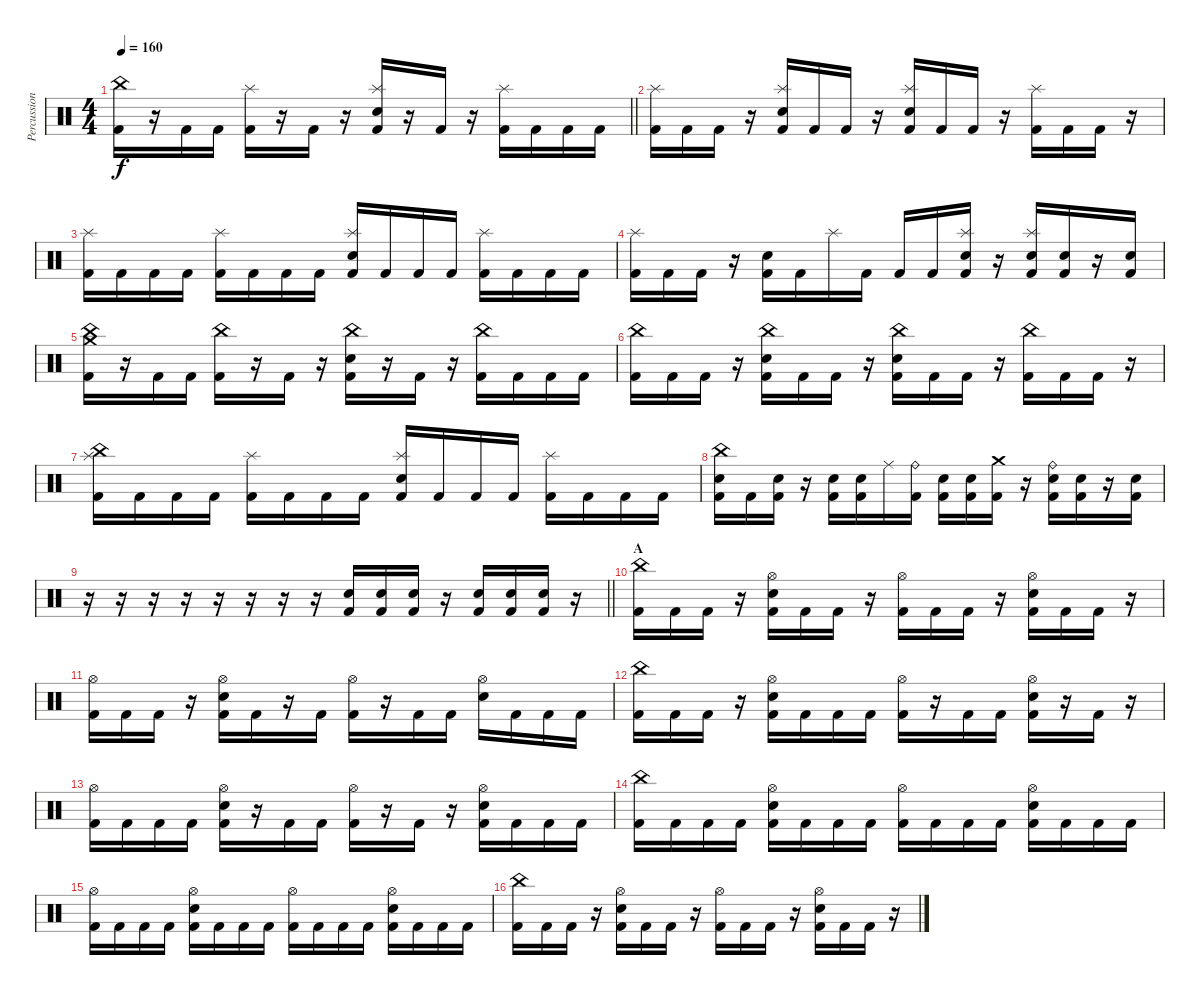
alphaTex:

\track ("Percussion" "Percussion") {instrument percussion}
\staff {score}
\articulation defaults
\ts (4 4)
\tempo 160
\clef neutral
\barLineRight lightlight
\ks c
("China (hit)" "Kick (hit) 2").16{dy f} r.16 "Kick (hit) 2".16 "Kick (hit) 2".16 ("Splash (hit)" "Kick (hit) 2").16 r.16 "Kick (hit) 2".16 r.16 ("Splash (hit)" "Electric Snare (hit)" "Kick (hit) 2").16 r.16 "Kick (hit) 2".16 r.16 ("Splash (hit)" "Kick (hit) 2").16 "Kick (hit) 2".16 "Kick (hit) 2".16 "Kick (hit) 2".16 |
("Splash (hit)" "Kick (hit) 2").16 "Kick (hit) 2".16 "Kick (hit) 2".16 r.16 ("Splash (hit)" "Electric Snare (hit)" "Kick (hit) 2").16 "Kick (hit) 2".16 "Kick (hit) 2".16 r.16 ("Splash (hit)" "Electric Snare (hit)" "Kick (hit) 2").16 "Kick (hit) 2".16 "Kick (hit) 2".16 r.16 ("Splash (hit)" "Kick (hit) 2").16 "Kick (hit) 2".16 "Kick (hit) 2".16 r.16 |
("Splash (hit)" "Kick (hit) 2").16 "Kick (hit) 2".16 "Kick (hit) 2".16 "Kick (hit) 2".16 ("Splash (hit)" "Kick (hit) 2").16 "Kick (hit) 2".16 "Kick (hit) 2".16 "Kick (hit) 2".16 ("Splash (hit)" "Electric Snare (hit)" "Kick (hit) 2").16 "Kick (hit) 2".16 "Kick (hit) 2".16 "Kick (hit) 2".16 ("Splash (hit)" "Kick (hit) 2").16 "Kick (hit) 2".16 "Kick (hit) 2".16 "Kick (hit) 2".16 |
("Splash (hit)" "Kick (hit) 2").16 "Kick (hit) 2".16 "Kick (hit) 2".16 r.16 ("Electric Snare (hit)" "Kick (hit) 2").16 "Kick (hit) 2".16 "Splash (hit)".16 "Kick (hit) 2".16 "Kick (hit) 2".16 "Kick (hit) 2".16 ("Splash (hit)" "Electric Snare (hit)" "Kick (hit) 2").16 r.16 ("Splash (hit)" "Electric Snare (hit)" "Kick (hit) 2").16 ("Electric Snare (hit)" "Kick (hit) 2").16 r.16 ("Electric Snare (hit)" "Kick (hit) 2").16 |
("China (hit)" "Crash medium (hit)" "Kick (hit) 2").16 r.16 "Kick (hit) 2".16 "Kick (hit) 2".16 ("China (hit)" "Kick (hit) 2").16 r.16 "Kick (hit) 2".16 r.16 ("China (hit)" "Electric Snare (hit)" "Kick (hit) 2").16 r.16 "Kick (hit) 2".16 r.16 ("China (hit)" "Kick (hit) 2").16 "Kick (hit) 2".16 "Kick (hit) 2".16 "Kick (hit) 2".16 |
("China (hit)" "Kick (hit) 2").16 "Kick (hit) 2".16 "Kick (hit) 2".16 r.16 ("China (hit)" "Electric Snare (hit)" "Kick (hit) 2").16 "Kick (hit) 2".16 "Kick (hit) 2".16 r.16 ("China (hit)" "Electric Snare (hit)" "Kick (hit) 2").16 "Kick (hit) 2".16 "Kick (hit) 2".16 r.16 ("China (hit)" "Kick (hit) 2").16 "Kick (hit) 2".16 "Kick (hit) 2".16 r.16 |
("China (hit)" "Splash (hit)" "Kick (hit) 2").16 "Kick (hit) 2".16 "Kick (hit) 2".16 "Kick (hit) 2".16 ("Splash (hit)" "Kick (hit) 2").16 "Kick (hit) 2".16 "Kick (hit) 2".16 "Kick (hit) 2".16 ("Splash (hit)" "Electric Snare (hit)" "Kick (hit) 2").16 "Kick (hit) 2".16 "Kick (hit) 2".16 "Kick (hit) 2".16 ("Splash (hit)" "Kick (hit) 2").16 "Kick (hit) 2".16 "Kick (hit) 2".16 "Kick (hit) 2".16 |
("China (hit)" "Electric Snare (hit)" "Kick (hit) 2").16 "Kick (hit) 2".16 ("Electric Snare (hit)" "Kick (hit) 2").16 r.16 ("Electric Snare (hit)" "Kick (hit) 2").16 ("Electric Snare (hit)" "Kick (hit) 2").16 "Ride (middle)".16 ("Ride (bell)" "Kick (hit) 2").16 ("Electric Snare (hit)" "Kick (hit) 2").16 ("Electric Snare (hit)" "Kick (hit) 2").16 ("Crash medium (hit)" "Kick (hit) 2").16 r.16 ("Ride (bell)" "Electric Snare (hit)" "Kick (hit) 2").16 ("Electric Snare (hit)" "Kick (hit) 2").16 r.16 ("Electric Snare (hit)" "Kick (hit) 2").16 |
\barLineRight lightlight
r.16 r.16 r.16 r.16 r.16 r.16 r.16 r.16 ("Electric Snare (hit)" "Kick (hit) 2").16 ("Electric Snare (hit)" "Kick (hit) 2").16 ("Electric Snare (hit)" "Kick (hit) 2").16 r.16 ("Electric Snare (hit)" "Kick (hit) 2").16 ("Electric Snare (hit)" "Kick (hit) 2").16 ("Electric Snare (hit)" "Kick (hit) 2").16 r.16 |
\section ("" "A")
("China (hit)" "Kick (hit) 2").16 "Kick (hit) 2".16 "Kick (hit) 2".16 r.16 ("Hi-Hat (open)" "Electric Snare (hit)" "Kick (hit) 2").16 "Kick (hit) 2".16 "Kick (hit) 2".16 r.16 ("Hi-Hat (open)" "Kick (hit) 2").16 "Kick (hit) 2".16 "Kick (hit) 2".16 r.16 ("Hi-Hat (open)" "Electric Snare (hit)" "Kick (hit) 2").16 "Kick (hit) 2".16 "Kick (hit) 2".16 r.16 |
("Hi-Hat (open)" "Kick (hit) 2").16 "Kick (hit) 2".16 "Kick (hit) 2".16 r.16 ("Hi-Hat (open)" "Electric Snare (hit)" "Kick (hit) 2").16 "Kick (hit) 2".16 r.16 "Kick (hit) 2".16 ("Hi-Hat (open)" "Kick (hit) 2").16 r.16 "Kick (hit) 2".16 "Kick (hit) 2".16 ("Hi-Hat (open)" "Electric Snare (hit)").16 "Kick (hit) 2".16 "Kick (hit) 2".16 "Kick (hit) 2".16 |
("China (hit)" "Kick (hit) 2").16 "Kick (hit) 2".16 "Kick (hit) 2".16 r.16 ("Hi-Hat (open)" "Electric Snare (hit)" "Kick (hit) 2").16 "Kick (hit) 2".16 "Kick (hit) 2".16 "Kick (hit) 2".16 ("Hi-Hat (open)" "Kick (hit) 2").16 r.16 "Kick (hit) 2".16 "Kick (hit) 2".16 ("Hi-Hat (open)" "Electric Snare (hit)" "Kick (hit) 2").16 r.16 "Kick (hit) 2".16 r.16 |
("Hi-Hat (open)" "Kick (hit) 2").16 "Kick (hit) 2".16 "Kick (hit) 2".16 "Kick (hit) 2".16 ("Hi-Hat (open)" "Electric Snare (hit)" "Kick (hit) 2").16 r.16 "Kick (hit) 2".16 "Kick (hit) 2".16 ("Hi-Hat (open)" "Kick (hit) 2").16 r.16 "Kick (hit) 2".16 r.16 ("Hi-Hat (open)" "Electric Snare (hit)" "Kick (hit) 2").16 "Kick (hit) 2".16 "Kick (hit) 2".16 "Kick (hit) 2".16 |
("China (hit)" "Kick (hit) 2").16 "Kick (hit) 2".16 "Kick (hit) 2".16 "Kick (hit) 2".16 ("Hi-Hat (open)" "Electric Snare (hit)" "Kick (hit) 2").16 "Kick (hit) 2".16 "Kick (hit) 2".16 "Kick (hit) 2".16 ("Hi-Hat (open)" "Kick (hit) 2").16 "Kick (hit) 2".16 "Kick (hit) 2".16 "Kick (hit) 2".16 ("Hi-Hat (open)" "Electric Snare (hit)" "Kick (hit) 2").16 "Kick (hit) 2".16 "Kick (hit) 2".16 "Kick (hit) 2".16 |
("Hi-Hat (open)" "Kick (hit) 2").16 "Kick (hit) 2".16 "Kick (hit) 2".16 "Kick (hit) 2".16 ("Hi-Hat (open)" "Electric Snare (hit)" "Kick (hit) 2").16 "Kick (hit) 2".16 "Kick (hit) 2".16 "Kick (hit) 2".16 ("Hi-Hat (open)" "Kick (hit) 2").16 "Kick (hit) 2".16 "Kick (hit) 2".16 "Kick (hit) 2".16 ("Hi-Hat (open)" "Electric Snare (hit)" "Kick (hit) 2").16 "Kick (hit) 2".16 "Kick (hit) 2".16 "Kick (hit) 2".16 |
("China (hit)" "Kick (hit) 2").16 "Kick (hit) 2".16 "Kick (hit) 2".16 r.16 ("Hi-Hat (open)" "Electric Snare (hit)" "Kick (hit) 2").16 "Kick (hit) 2".16 "Kick (hit) 2".16 r.16 ("Hi-Hat (open)" "Kick (hit) 2").16 "Kick (hit) 2".16 "Kick (hit) 2".16 r.16 ("Hi-Hat (open)" "Electric Snare (hit)" "Kick (hit) 2").16 "Kick (hit) 2".16 "Kick (hit) 2".16 r.16
